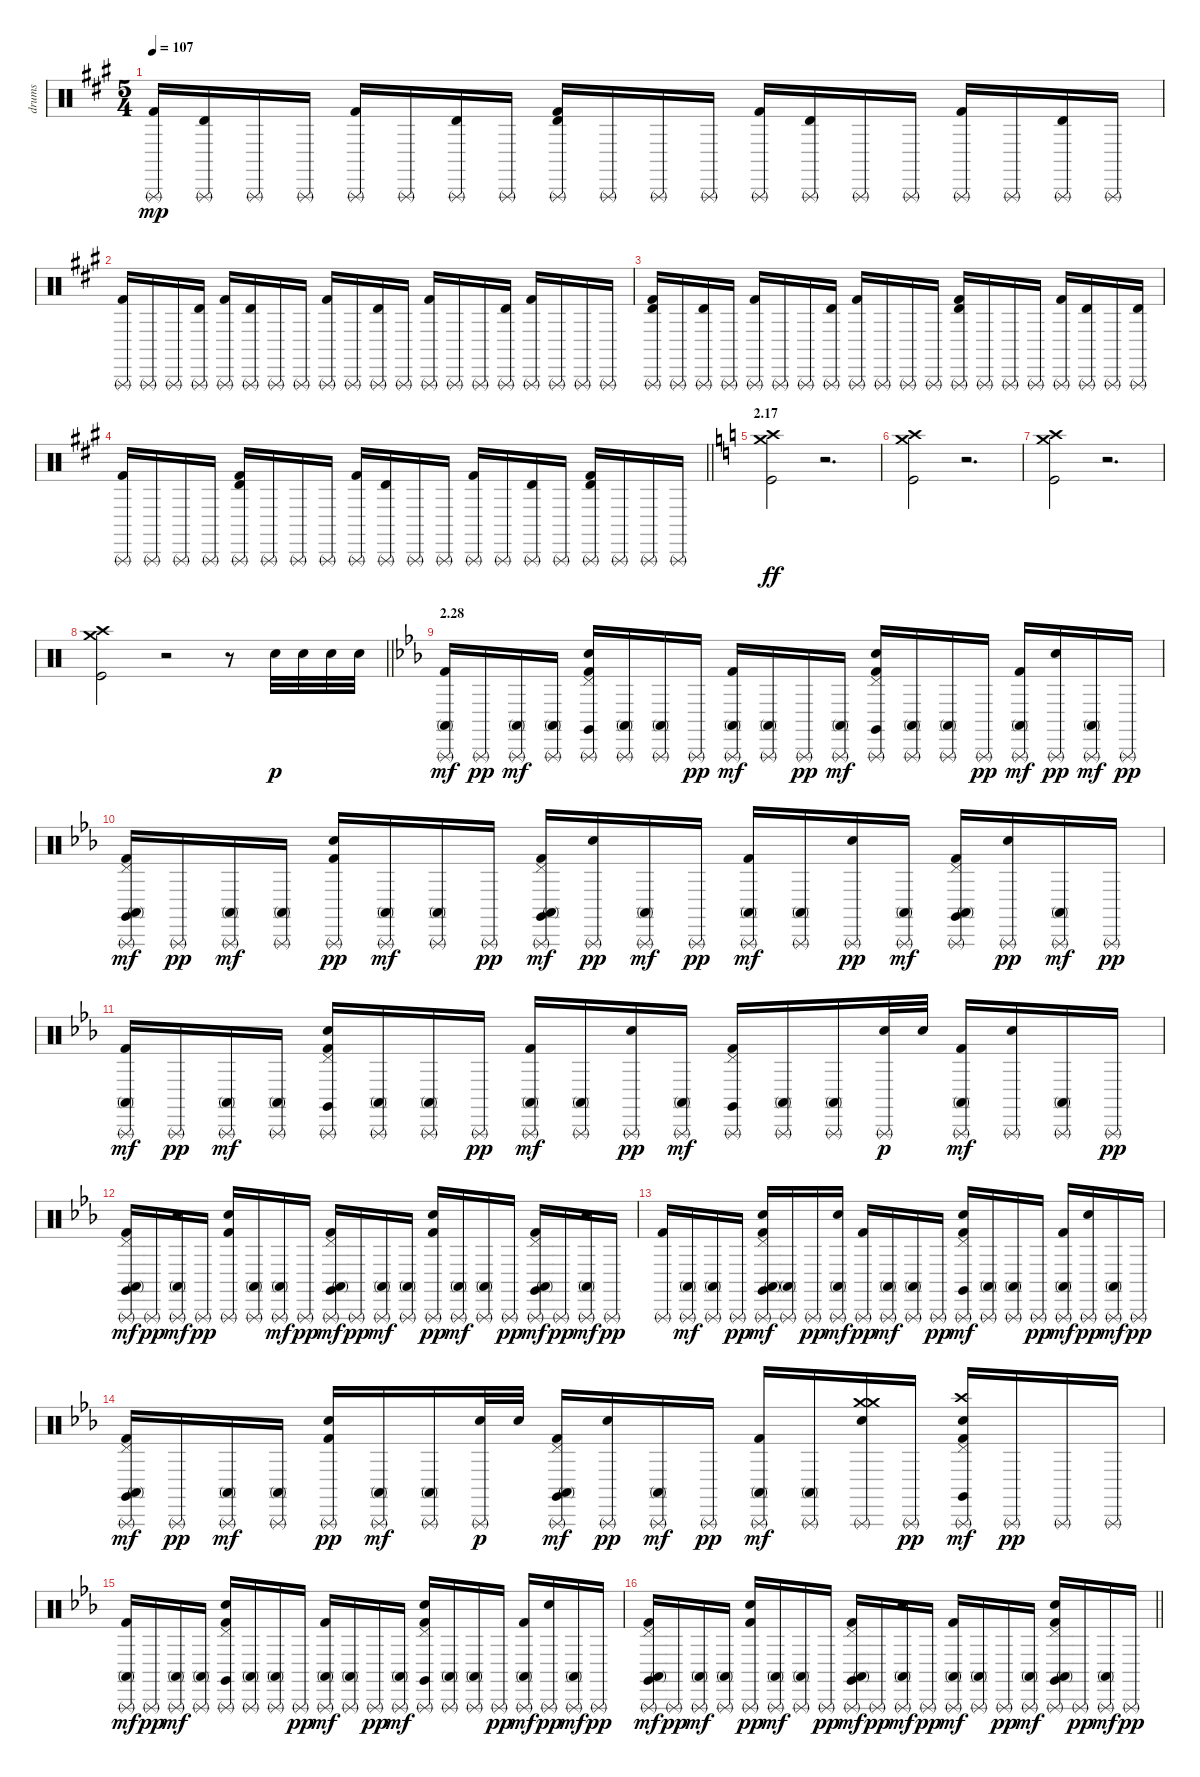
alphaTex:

\track ("drums" "drums") {instrument percussion}
\staff {score}
\articulation defaults
\ts (5 4)
\tempo 107
\clef neutral
\ks a
("Triangle (rnute)" "Kick (hit) 2").16{dy mp} ("Triangle (rnute)" "Timbale high (hit)").16 "Triangle (rnute)".16 "Triangle (rnute)".16 ("Triangle (rnute)" "Kick (hit) 2").16 "Triangle (rnute)".16 ("Triangle (rnute)" "Timbale high (hit)").16 "Triangle (rnute)".16 ("Triangle (rnute)" "Timbale high (hit)" "Kick (hit) 2").16 "Triangle (rnute)".16 "Triangle (rnute)".16 "Triangle (rnute)".16 ("Triangle (rnute)" "Kick (hit) 2").16 ("Triangle (rnute)" "Timbale high (hit)").16 "Triangle (rnute)".16 "Triangle (rnute)".16 ("Triangle (rnute)" "Kick (hit) 2").16 "Triangle (rnute)".16 ("Triangle (rnute)" "Timbale high (hit)").16 "Triangle (rnute)".16 |
("Triangle (rnute)" "Kick (hit) 2").16 "Triangle (rnute)".16 "Triangle (rnute)".16 ("Triangle (rnute)" "Timbale high (hit)").16 ("Triangle (rnute)" "Kick (hit) 2").16 ("Triangle (rnute)" "Timbale high (hit)").16 "Triangle (rnute)".16 "Triangle (rnute)".16 ("Triangle (rnute)" "Kick (hit) 2").16 "Triangle (rnute)".16 ("Triangle (rnute)" "Timbale high (hit)").16 "Triangle (rnute)".16 ("Triangle (rnute)" "Kick (hit) 2").16 "Triangle (rnute)".16 "Triangle (rnute)".16 ("Triangle (rnute)" "Timbale high (hit)").16 ("Triangle (rnute)" "Kick (hit) 2").16 "Triangle (rnute)".16 "Triangle (rnute)".16 "Triangle (rnute)".16 |
("Triangle (rnute)" "Timbale high (hit)" "Kick (hit) 2").16 "Triangle (rnute)".16 ("Triangle (rnute)" "Timbale high (hit)").16 "Triangle (rnute)".16 ("Triangle (rnute)" "Kick (hit) 2").16 "Triangle (rnute)".16 "Triangle (rnute)".16 ("Triangle (rnute)" "Timbale high (hit)").16 ("Triangle (rnute)" "Kick (hit) 2").16 "Triangle (rnute)".16 "Triangle (rnute)".16 "Triangle (rnute)".16 ("Triangle (rnute)" "Timbale high (hit)" "Kick (hit) 2").16 "Triangle (rnute)".16 "Triangle (rnute)".16 "Triangle (rnute)".16 ("Triangle (rnute)" "Kick (hit) 2").16 ("Triangle (rnute)" "Timbale high (hit)").16 "Triangle (rnute)".16 ("Triangle (rnute)" "Timbale high (hit)").16 |
\barLineRight lightlight
("Triangle (rnute)" "Kick (hit) 2").16 "Triangle (rnute)".16 "Triangle (rnute)".16 "Triangle (rnute)".16 ("Triangle (rnute)" "Timbale high (hit)" "Kick (hit) 2").16 "Triangle (rnute)".16 "Triangle (rnute)".16 "Triangle (rnute)".16 ("Triangle (rnute)" "Kick (hit) 2").16 ("Triangle (rnute)" "Timbale high (hit)").16 "Triangle (rnute)".16 "Triangle (rnute)".16 ("Triangle (rnute)" "Kick (hit) 2").16 "Triangle (rnute)".16 ("Triangle (rnute)" "Timbale high (hit)").16 "Triangle (rnute)".16 ("Triangle (rnute)" "Timbale high (hit)" "Kick (hit) 2").16 "Triangle (rnute)".16 "Triangle (rnute)".16 "Triangle (rnute)".16 |
\section ("" "2.17")
\ks c
("Crash medium (hit)" "Crash high (hit)" "Kick (hit)").2{dy ff} r.2{d} |
("Crash medium (hit)" "Crash high (hit)" "Kick (hit)").2 r.2{d} |
("Crash medium (hit)" "Crash high (hit)" "Kick (hit)").2 r.2{d} |
\barLineRight lightlight
("Crash medium (hit)" "Crash high (hit)" "Kick (hit)").2 r.2 r.8 "Electric Snare (hit)".32{dy p} "Electric Snare (hit)".32 "Electric Snare (hit)".32 "Electric Snare (hit)".32 |
\section ("" "2.28")
\ks eb
("Triangle (rnute)" "Conga high (mute)" "Kick (hit) 2").16{dy mf} "Triangle (rnute)".16{dy pp} ("Triangle (rnute)" "Conga high (mute)").16{dy mf} ("Triangle (rnute)" "Conga high (mute)").16 ("Triangle (rnute)" "Claves (hit)" "Pedal Hi-Hat (hit)" "Electric Snare (hit)" "Kick (hit) 2").16 ("Triangle (rnute)" "Conga high (mute)").16 ("Triangle (rnute)" "Conga high (mute)").16 "Triangle (rnute)".16{dy pp} ("Triangle (rnute)" "Conga high (mute)" "Kick (hit) 2").16{dy mf} ("Triangle (rnute)" "Conga high (mute)").16 "Triangle (rnute)".16{dy pp} ("Triangle (rnute)" "Conga high (mute)").16{dy mf} ("Triangle (rnute)" "Claves (hit)" "Pedal Hi-Hat (hit)" "Electric Snare (hit)" "Kick (hit) 2").16 ("Triangle (rnute)" "Conga high (mute)").16 ("Triangle (rnute)" "Conga high (mute)").16 "Triangle (rnute)".16{dy pp} ("Triangle (rnute)" "Conga high (mute)" "Kick (hit) 2").16{dy mf} ("Triangle (rnute)" "Electric Snare (hit)").16{dy pp} ("Triangle (rnute)" "Conga high (mute)").16{dy mf} "Triangle (rnute)".16{dy pp} |
("Triangle (rnute)" "Claves (hit)" "Conga high (mute)" "Pedal Hi-Hat (hit)" "Kick (hit) 2").16{dy mf} "Triangle (rnute)".16{dy pp} ("Triangle (rnute)" "Conga high (mute)").16{dy mf} ("Triangle (rnute)" "Conga high (mute)").16 ("Triangle (rnute)" "Electric Snare (hit)" "Kick (hit) 2").16{dy pp} ("Triangle (rnute)" "Conga high (mute)").16{dy mf} ("Triangle (rnute)" "Conga high (mute)").16 "Triangle (rnute)".16{dy pp} ("Triangle (rnute)" "Claves (hit)" "Conga high (mute)" "Pedal Hi-Hat (hit)" "Kick (hit) 2").16{dy mf} ("Triangle (rnute)" "Electric Snare (hit)").16{dy pp} ("Triangle (rnute)" "Conga high (mute)").16{dy mf} "Triangle (rnute)".16{dy pp} ("Triangle (rnute)" "Conga high (mute)" "Kick (hit) 2").16{dy mf} ("Triangle (rnute)" "Conga high (mute)").16 ("Triangle (rnute)" "Electric Snare (hit)").16{dy pp} ("Triangle (rnute)" "Conga high (mute)").16{dy mf} ("Triangle (rnute)" "Claves (hit)" "Conga high (mute)" "Pedal Hi-Hat (hit)" "Kick (hit) 2").16 ("Triangle (rnute)" "Electric Snare (hit)").16{dy pp} ("Triangle (rnute)" "Conga high (mute)").16{dy mf} "Triangle (rnute)".16{dy pp} |
("Triangle (rnute)" "Conga high (mute)" "Kick (hit) 2").16{dy mf} "Triangle (rnute)".16{dy pp} ("Triangle (rnute)" "Conga high (mute)").16{dy mf} ("Triangle (rnute)" "Conga high (mute)").16 ("Triangle (rnute)" "Claves (hit)" "Pedal Hi-Hat (hit)" "Electric Snare (hit)" "Kick (hit) 2").16 ("Triangle (rnute)" "Conga high (mute)").16 ("Triangle (rnute)" "Conga high (mute)").16 "Triangle (rnute)".16{dy pp} ("Triangle (rnute)" "Conga high (mute)" "Kick (hit) 2").16{dy mf} ("Triangle (rnute)" "Conga high (mute)").16 ("Electric Snare (hit)" "Triangle (rnute)").16{dy pp} ("Triangle (rnute)" "Conga high (mute)").16{dy mf} ("Triangle (rnute)" "Claves (hit)" "Pedal Hi-Hat (hit)" "Kick (hit) 2").16 ("Triangle (rnute)" "Conga high (mute)").16 ("Triangle (rnute)" "Conga high (mute)").16 ("Triangle (rnute)" "Electric Snare (hit)").32{dy p} "Electric Snare (hit)".32 ("Triangle (rnute)" "Conga high (mute)" "Kick (hit) 2").16{dy mf} ("Triangle (rnute)" "Electric Snare (hit)").16 ("Triangle (rnute)" "Conga high (mute)").16 "Triangle (rnute)".16{dy pp} |
("Triangle (rnute)" "Claves (hit)" "Conga high (mute)" "Pedal Hi-Hat (hit)" "Kick (hit) 2").16{dy mf} "Triangle (rnute)".16{dy pp} ("Triangle (rnute)" "Conga high (mute)" "Electric Snare (hit)").16{dy mf} "Triangle (rnute)".16{dy pp} ("Triangle (rnute)" "Kick (hit) 2" "Electric Snare (hit)").16 ("Conga high (mute)" "Triangle (rnute)").16 ("Triangle (rnute)" "Conga high (mute)").16{dy mf} "Triangle (rnute)".16{dy pp} ("Triangle (rnute)" "Claves (hit)" "Conga high (mute)" "Pedal Hi-Hat (hit)" "Kick (hit) 2").16{dy mf} "Triangle (rnute)".16{dy pp} ("Triangle (rnute)" "Conga high (mute)").16{dy mf} ("Triangle (rnute)" "Conga high (mute)").16 ("Triangle (rnute)" "Electric Snare (hit)" "Kick (hit) 2").16{dy pp} ("Triangle (rnute)" "Conga high (mute)").16{dy mf} ("Triangle (rnute)" "Conga high (mute)").16 "Triangle (rnute)".16{dy pp} ("Triangle (rnute)" "Claves (hit)" "Conga high (mute)" "Pedal Hi-Hat (hit)" "Kick (hit) 2").16{dy mf} "Triangle (rnute)".16{dy pp} ("Electric Snare (hit)" "Triangle (rnute)" "Conga high (mute)").16{dy mf} "Triangle (rnute)".16{dy pp} |
("Triangle (rnute)" "Kick (hit) 2").16 ("Triangle (rnute)" "Conga high (mute)").16{dy mf} ("Triangle (rnute)" "Conga high (mute)").16 "Triangle (rnute)".16{dy pp} ("Triangle (rnute)" "Claves (hit)" "Conga high (mute)" "Pedal Hi-Hat (hit)" "Electric Snare (hit)" "Kick (hit) 2").16{dy mf} ("Triangle (rnute)" "Conga high (mute)").16 "Triangle (rnute)".16{dy pp} ("Triangle (rnute)" "Conga high (mute)" "Electric Snare (hit)").16{dy mf} ("Triangle (rnute)" "Kick (hit) 2").16{dy pp} ("Triangle (rnute)" "Conga high (mute)").16{dy mf} ("Triangle (rnute)" "Conga high (mute)").16 "Triangle (rnute)".16{dy pp} ("Triangle (rnute)" "Claves (hit)" "Pedal Hi-Hat (hit)" "Electric Snare (hit)" "Kick (hit) 2").16{dy mf} ("Triangle (rnute)" "Conga high (mute)").16 ("Triangle (rnute)" "Conga high (mute)").16 "Triangle (rnute)".16{dy pp} ("Triangle (rnute)" "Conga high (mute)" "Kick (hit) 2").16{dy mf} ("Triangle (rnute)" "Electric Snare (hit)").16{dy pp} ("Triangle (rnute)" "Conga high (mute)").16{dy mf} "Triangle (rnute)".16{dy pp} |
("Triangle (rnute)" "Claves (hit)" "Conga high (mute)" "Pedal Hi-Hat (hit)" "Kick (hit) 2").16{dy mf} "Triangle (rnute)".16{dy pp} ("Triangle (rnute)" "Conga high (mute)").16{dy mf} ("Triangle (rnute)" "Conga high (mute)").16 ("Triangle (rnute)" "Electric Snare (hit)" "Kick (hit) 2").16{dy pp} ("Triangle (rnute)" "Conga high (mute)").16{dy mf} ("Triangle (rnute)" "Conga high (mute)").16 ("Triangle (rnute)" "Electric Snare (hit)").32{dy p} "Electric Snare (hit)".32 ("Triangle (rnute)" "Claves (hit)" "Conga high (mute)" "Pedal Hi-Hat (hit)" "Kick (hit) 2").16{dy mf} ("Triangle (rnute)" "Electric Snare (hit)").16{dy pp} ("Triangle (rnute)" "Conga high (mute)").16{dy mf} "Triangle (rnute)".16{dy pp} ("Triangle (rnute)" "Conga high (mute)" "Kick (hit) 2").16{dy mf} ("Triangle (rnute)" "Conga high (mute)").16 ("Triangle (rnute)" "Crash medium (hit)" "Crash medium (hit)" "Electric Snare (hit)").16 "Triangle (rnute)".16{dy pp} ("Triangle (rnute)" "Claves (hit)" "Crash high (hit)" "Pedal Hi-Hat (hit)" "Electric Snare (hit)" "Kick (hit) 2").16{dy mf} "Triangle (rnute)".16{dy pp} "Triangle (rnute)".16 "Triangle (rnute)".16 |
("Triangle (rnute)" "Conga high (mute)" "Kick (hit) 2").16{dy mf} "Triangle (rnute)".16{dy pp} ("Triangle (rnute)" "Conga high (mute)").16{dy mf} ("Triangle (rnute)" "Conga high (mute)").16 ("Triangle (rnute)" "Claves (hit)" "Pedal Hi-Hat (hit)" "Electric Snare (hit)" "Kick (hit) 2").16 ("Triangle (rnute)" "Conga high (mute)").16 ("Triangle (rnute)" "Conga high (mute)").16 "Triangle (rnute)".16{dy pp} ("Triangle (rnute)" "Conga high (mute)" "Kick (hit) 2").16{dy mf} ("Triangle (rnute)" "Conga high (mute)").16 "Triangle (rnute)".16{dy pp} ("Triangle (rnute)" "Conga high (mute)").16{dy mf} ("Triangle (rnute)" "Claves (hit)" "Pedal Hi-Hat (hit)" "Electric Snare (hit)" "Kick (hit) 2").16 ("Triangle (rnute)" "Conga high (mute)").16 ("Triangle (rnute)" "Conga high (mute)").16 "Triangle (rnute)".16{dy pp} ("Triangle (rnute)" "Conga high (mute)" "Kick (hit) 2").16{dy mf} ("Triangle (rnute)" "Electric Snare (hit)").16{dy pp} ("Triangle (rnute)" "Conga high (mute)").16{dy mf} "Triangle (rnute)".16{dy pp} |
\barLineRight lightlight
("Triangle (rnute)" "Claves (hit)" "Conga high (mute)" "Pedal Hi-Hat (hit)" "Kick (hit) 2").16{dy mf} "Triangle (rnute)".16{dy pp} ("Triangle (rnute)" "Conga high (mute)").16{dy mf} ("Triangle (rnute)" "Conga high (mute)").16 ("Triangle (rnute)" "Electric Snare (hit)" "Kick (hit) 2").16{dy pp} ("Triangle (rnute)" "Conga high (mute)").16{dy mf} ("Triangle (rnute)" "Conga high (mute)").16 "Triangle (rnute)".16{dy pp} ("Triangle (rnute)" "Claves (hit)" "Conga high (mute)" "Pedal Hi-Hat (hit)" "Kick (hit) 2").16{dy mf} "Triangle (rnute)".16{dy pp} ("Triangle (rnute)" "Conga high (mute)" "Electric Snare (hit)").16{dy mf} "Triangle (rnute)".16{dy pp} ("Triangle (rnute)" "Conga high (mute)" "Kick (hit) 2").16{dy mf} ("Triangle (rnute)" "Conga high (mute)").16 "Triangle (rnute)".16{dy pp} ("Triangle (rnute)" "Conga high (mute)").16{dy mf} ("Triangle (rnute)" "Claves (hit)" "Conga high (mute)" "Pedal Hi-Hat (hit)" "Electric Snare (hit)" "Kick (hit) 2").16 "Triangle (rnute)".16{dy pp} ("Triangle (rnute)" "Conga high (mute)").16{dy mf} "Triangle (rnute)".16{dy pp}
